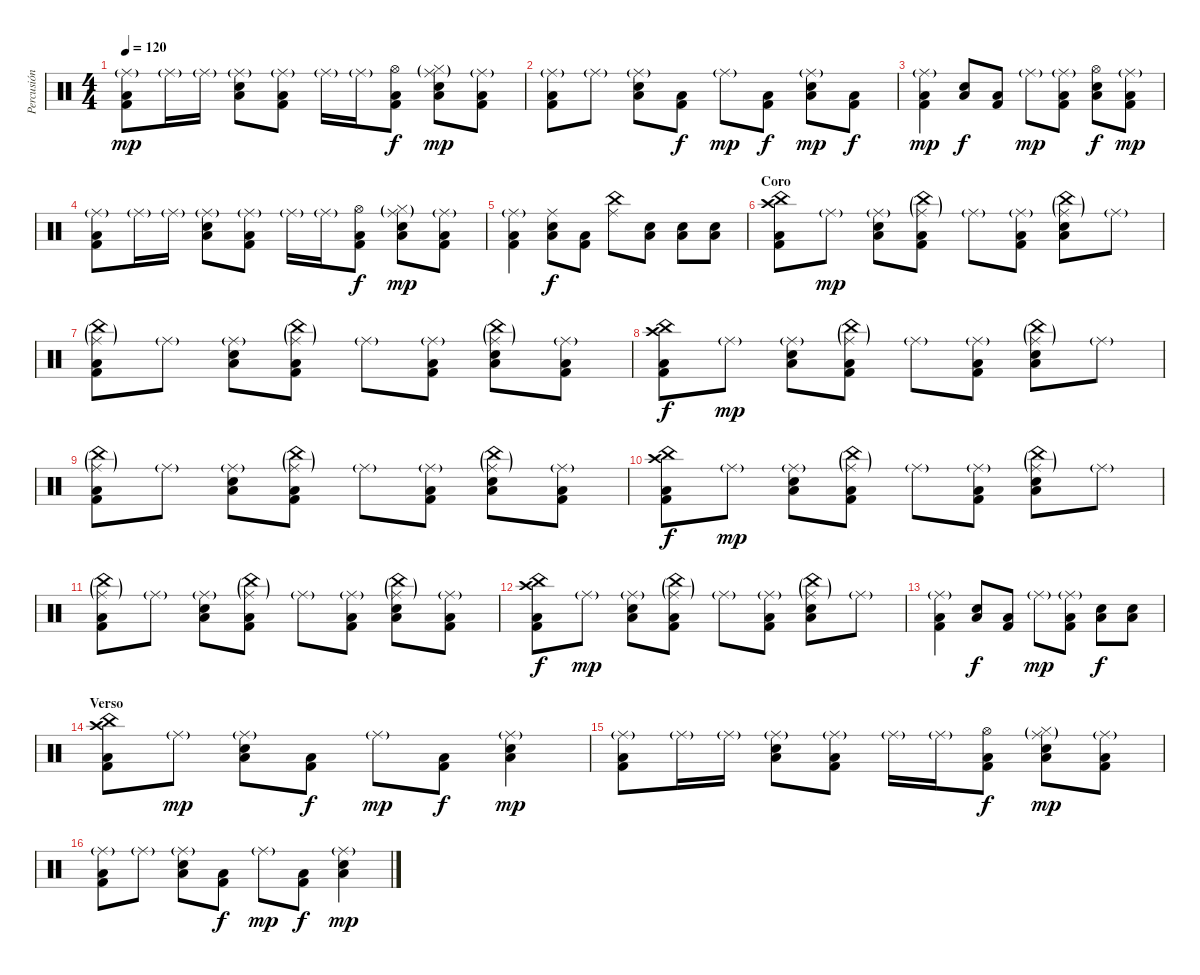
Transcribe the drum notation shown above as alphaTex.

\track ("Percusión" "Percusión") {instrument percussion}
\staff {score}
\articulation defaults
\ts (4 4)
\tempo 120
\clef neutral
\ks c
("Ride (middle)"{g} "Low Floor Tom (hit)" "Kick (hit) 2").8{dy mp} "Ride (middle)"{g}.16 "Ride (middle)"{g}.16 ("Ride (middle)"{g} "Low Tom (hit)" "Electric Snare (hit)").8 ("Ride (middle)"{g} "Low Floor Tom (hit)" "Kick (hit) 2").8 "Ride (middle)"{g}.16 "Ride (middle)"{g}.16 ("Hi-Hat (open)" "Low Floor Tom (hit)" "Kick (hit) 2").8{dy f} ("Ride (middle)"{g} "Hi-Hat (closed)"{g} "Low Tom (hit)" "Electric Snare (hit)").8{dy mp} ("Ride (middle)"{g} "Low Floor Tom (hit)" "Kick (hit) 2").8 |
("Ride (middle)"{g} "Low Floor Tom (hit)" "Kick (hit) 2").8 "Ride (middle)"{g}.8 ("Ride (middle)"{g} "Low Tom (hit)" "Electric Snare (hit)").8 ("Low Floor Tom (hit)" "Kick (hit) 2").8{dy f} "Ride (middle)"{g}.8{dy mp} ("Low Floor Tom (hit)" "Kick (hit) 2").8{dy f} ("Ride (middle)"{g} "Low Tom (hit)" "Electric Snare (hit)").8{dy mp} ("Low Floor Tom (hit)" "Kick (hit) 2").8{dy f} |
("Ride (middle)"{g} "Low Floor Tom (hit)" "Kick (hit) 2").4{dy mp} ("Low Tom (hit)" "Electric Snare (hit)").8{dy f} ("Low Floor Tom (hit)" "Kick (hit) 2").8 "Ride (middle)"{g}.8{dy mp} ("Ride (middle)"{g} "Low Floor Tom (hit)" "Kick (hit) 2").8 ("Hi-Hat (open)" "Low Tom (hit)" "Electric Snare (hit)").8{dy f} ("Ride (middle)"{g} "Low Floor Tom (hit)" "Kick (hit) 2").8{dy mp} |
("Ride (middle)"{g} "Low Floor Tom (hit)" "Kick (hit) 2").8 "Ride (middle)"{g}.16 "Ride (middle)"{g}.16 ("Ride (middle)"{g} "Low Tom (hit)" "Electric Snare (hit)").8 ("Ride (middle)"{g} "Low Floor Tom (hit)" "Kick (hit) 2").8 "Ride (middle)"{g}.16 "Ride (middle)"{g}.16 ("Hi-Hat (open)" "Low Floor Tom (hit)" "Kick (hit) 2").8{dy f} ("Ride (middle)"{g} "Hi-Hat (closed)"{g} "Low Tom (hit)" "Electric Snare (hit)").8{dy mp} ("Ride (middle)"{g} "Low Floor Tom (hit)" "Kick (hit) 2").8 |
("Ride (middle)"{g} "Low Floor Tom (hit)" "Kick (hit) 2").4 ("Ride (middle)" "Low Tom (hit)" "Electric Snare (hit)").8{dy f} ("Low Floor Tom (hit)" "Kick (hit) 2").8 ("China (hit)" "Ride (middle)").8 ("Low Tom (hit)" "Electric Snare (hit)").8 ("Low Tom (hit)" "Electric Snare (hit)").8 ("Low Tom (hit)" "Electric Snare (hit)").8 |
\section ("" "Coro")
("China (hit)" "Crash high (hit)" "Low Floor Tom (hit)" "Kick (hit) 2").8 "Ride (middle)"{g}.8{dy mp} ("Ride (middle)"{g} "Low Tom (hit)" "Electric Snare (hit)").8 ("Ride (middle)"{g} "China (hit)"{g} "Low Floor Tom (hit)" "Kick (hit) 2").8 "Ride (middle)"{g}.8 ("Ride (middle)"{g} "Low Floor Tom (hit)" "Kick (hit) 2").8 ("Ride (middle)"{g} "China (hit)"{g} "Low Tom (hit)" "Electric Snare (hit)").8 "Ride (middle)"{g}.8 |
("Ride (middle)"{g} "China (hit)"{g} "Low Floor Tom (hit)" "Kick (hit) 2").8 "Ride (middle)"{g}.8 ("Ride (middle)"{g} "Low Tom (hit)" "Electric Snare (hit)").8 ("Ride (middle)"{g} "China (hit)"{g} "Low Floor Tom (hit)" "Kick (hit) 2").8 "Ride (middle)"{g}.8 ("Ride (middle)"{g} "Low Floor Tom (hit)" "Kick (hit) 2").8 ("Ride (middle)"{g} "China (hit)"{g} "Low Tom (hit)" "Electric Snare (hit)").8 ("Ride (middle)"{g} "Low Floor Tom (hit)" "Kick (hit) 2").8 |
("China (hit)" "Crash high (hit)" "Low Floor Tom (hit)" "Kick (hit) 2").8{dy f} "Ride (middle)"{g}.8{dy mp} ("Ride (middle)"{g} "Low Tom (hit)" "Electric Snare (hit)").8 ("Ride (middle)"{g} "China (hit)"{g} "Low Floor Tom (hit)" "Kick (hit) 2").8 "Ride (middle)"{g}.8 ("Ride (middle)"{g} "Low Floor Tom (hit)" "Kick (hit) 2").8 ("Ride (middle)"{g} "China (hit)"{g} "Low Tom (hit)" "Electric Snare (hit)").8 "Ride (middle)"{g}.8 |
("Ride (middle)"{g} "China (hit)"{g} "Low Floor Tom (hit)" "Kick (hit) 2").8 "Ride (middle)"{g}.8 ("Ride (middle)"{g} "Low Tom (hit)" "Electric Snare (hit)").8 ("Ride (middle)"{g} "China (hit)"{g} "Low Floor Tom (hit)" "Kick (hit) 2").8 "Ride (middle)"{g}.8 ("Ride (middle)"{g} "Low Floor Tom (hit)" "Kick (hit) 2").8 ("Ride (middle)"{g} "China (hit)"{g} "Low Tom (hit)" "Electric Snare (hit)").8 ("Ride (middle)"{g} "Low Floor Tom (hit)" "Kick (hit) 2").8 |
("China (hit)" "Crash high (hit)" "Low Floor Tom (hit)" "Kick (hit) 2").8{dy f} "Ride (middle)"{g}.8{dy mp} ("Ride (middle)"{g} "Low Tom (hit)" "Electric Snare (hit)").8 ("Ride (middle)"{g} "China (hit)"{g} "Low Floor Tom (hit)" "Kick (hit) 2").8 "Ride (middle)"{g}.8 ("Ride (middle)"{g} "Low Floor Tom (hit)" "Kick (hit) 2").8 ("Ride (middle)"{g} "China (hit)"{g} "Low Tom (hit)" "Electric Snare (hit)").8 "Ride (middle)"{g}.8 |
("Ride (middle)"{g} "China (hit)"{g} "Low Floor Tom (hit)" "Kick (hit) 2").8 "Ride (middle)"{g}.8 ("Ride (middle)"{g} "Low Tom (hit)" "Electric Snare (hit)").8 ("Ride (middle)"{g} "China (hit)"{g} "Low Floor Tom (hit)" "Kick (hit) 2").8 "Ride (middle)"{g}.8 ("Ride (middle)"{g} "Low Floor Tom (hit)" "Kick (hit) 2").8 ("Ride (middle)"{g} "China (hit)"{g} "Low Tom (hit)" "Electric Snare (hit)").8 ("Ride (middle)"{g} "Low Floor Tom (hit)" "Kick (hit) 2").8 |
("China (hit)" "Crash high (hit)" "Low Floor Tom (hit)" "Kick (hit) 2").8{dy f} "Ride (middle)"{g}.8{dy mp} ("Ride (middle)"{g} "Low Tom (hit)" "Electric Snare (hit)").8 ("Ride (middle)"{g} "China (hit)"{g} "Low Floor Tom (hit)" "Kick (hit) 2").8 "Ride (middle)"{g}.8 ("Ride (middle)"{g} "Low Floor Tom (hit)" "Kick (hit) 2").8 ("Ride (middle)"{g} "China (hit)"{g} "Low Tom (hit)" "Electric Snare (hit)").8 "Ride (middle)"{g}.8 |
("Ride (middle)"{g} "Low Floor Tom (hit)" "Kick (hit) 2").4 ("Low Tom (hit)" "Electric Snare (hit)").8{dy f} ("Low Floor Tom (hit)" "Kick (hit) 2").8 "Ride (middle)"{g}.8{dy mp} ("Ride (middle)"{g} "Low Floor Tom (hit)" "Kick (hit) 2").8 ("Low Tom (hit)" "Electric Snare (hit)").8{dy f} ("Low Tom (hit)" "Electric Snare (hit)").8 |
\section ("" "Verso")
("China (hit)" "Crash high (hit)" "Low Floor Tom (hit)" "Kick (hit) 2").8 "Ride (middle)"{g}.8{dy mp} ("Ride (middle)"{g} "Low Tom (hit)" "Electric Snare (hit)").8 ("Low Floor Tom (hit)" "Kick (hit) 2").8{dy f} "Ride (middle)"{g}.8{dy mp} ("Low Floor Tom (hit)" "Kick (hit) 2").8{dy f} ("Ride (middle)"{g} "Low Tom (hit)" "Electric Snare (hit)").4{dy mp} |
("Ride (middle)"{g} "Low Floor Tom (hit)" "Kick (hit) 2").8 "Ride (middle)"{g}.16 "Ride (middle)"{g}.16 ("Ride (middle)"{g} "Low Tom (hit)" "Electric Snare (hit)").8 ("Ride (middle)"{g} "Low Floor Tom (hit)" "Kick (hit) 2").8 "Ride (middle)"{g}.16 "Ride (middle)"{g}.16 ("Hi-Hat (open)" "Low Floor Tom (hit)" "Kick (hit) 2").8{dy f} ("Ride (middle)"{g} "Hi-Hat (closed)"{g} "Low Tom (hit)" "Electric Snare (hit)").8{dy mp} ("Ride (middle)"{g} "Low Floor Tom (hit)" "Kick (hit) 2").8 |
("Ride (middle)"{g} "Low Floor Tom (hit)" "Kick (hit) 2").8 "Ride (middle)"{g}.8 ("Ride (middle)"{g} "Low Tom (hit)" "Electric Snare (hit)").8 ("Low Floor Tom (hit)" "Kick (hit) 2").8{dy f} "Ride (middle)"{g}.8{dy mp} ("Low Floor Tom (hit)" "Kick (hit) 2").8{dy f} ("Ride (middle)"{g} "Low Tom (hit)" "Electric Snare (hit)").4{dy mp}
